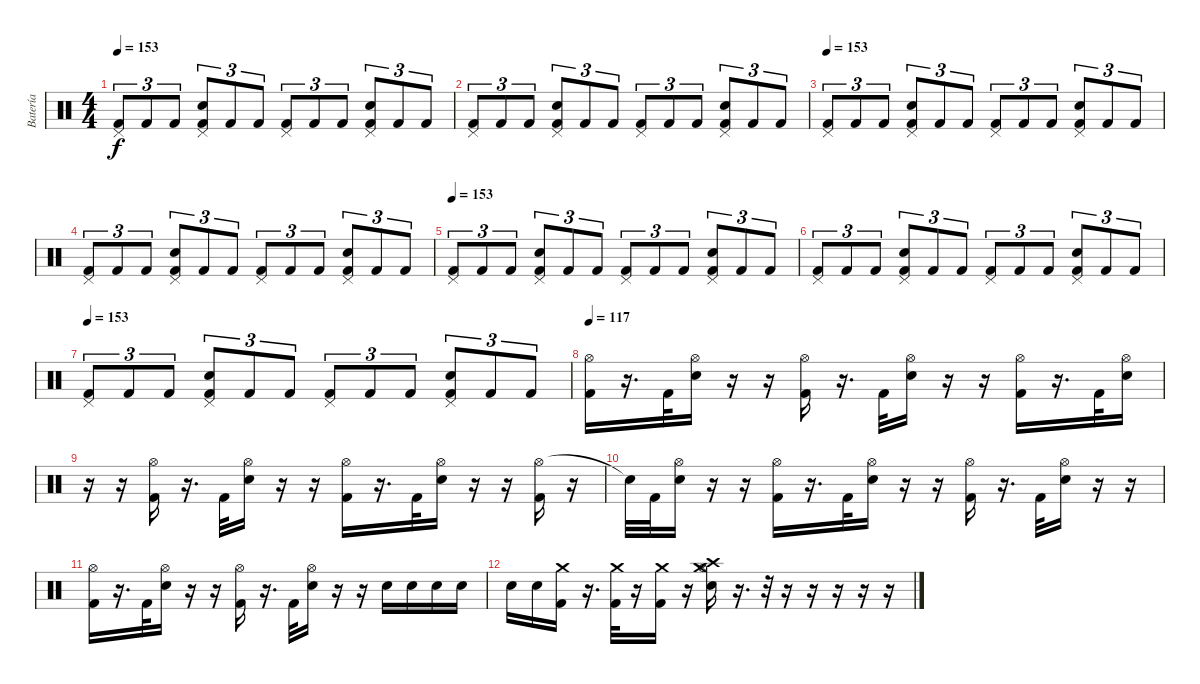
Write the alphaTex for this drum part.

\track ("Batería" "Batería") {instrument percussion}
\staff {score}
\articulation defaults
\ts (4 4)
\tempo 153
\clef neutral
\ks c
("Pedal Hi-Hat (hit)" "Kick (hit) 2").8{tu (3 2) dy f} "Kick (hit) 2".8{tu (3 2)} "Kick (hit) 2".8{tu (3 2)} ("Pedal Hi-Hat (hit)" "Kick (hit) 2" "Snare (hit) 2").8{tu (3 2)} "Kick (hit) 2".8{tu (3 2)} "Kick (hit) 2".8{tu (3 2)} ("Pedal Hi-Hat (hit)" "Kick (hit) 2").8{tu (3 2)} "Kick (hit) 2".8{tu (3 2)} "Kick (hit) 2".8{tu (3 2)} ("Pedal Hi-Hat (hit)" "Kick (hit) 2" "Snare (hit) 2").8{tu (3 2)} "Kick (hit) 2".8{tu (3 2)} "Kick (hit) 2".8{tu (3 2)} |
("Pedal Hi-Hat (hit)" "Kick (hit) 2").8{tu (3 2)} "Kick (hit) 2".8{tu (3 2)} "Kick (hit) 2".8{tu (3 2)} ("Pedal Hi-Hat (hit)" "Kick (hit) 2" "Snare (hit) 2").8{tu (3 2)} "Kick (hit) 2".8{tu (3 2)} "Kick (hit) 2".8{tu (3 2)} ("Pedal Hi-Hat (hit)" "Kick (hit) 2").8{tu (3 2)} "Kick (hit) 2".8{tu (3 2)} "Kick (hit) 2".8{tu (3 2)} ("Pedal Hi-Hat (hit)" "Kick (hit) 2" "Snare (hit) 2").8{tu (3 2)} "Kick (hit) 2".8{tu (3 2)} "Kick (hit) 2".8{tu (3 2)} |
\tempo 153
("Pedal Hi-Hat (hit)" "Kick (hit) 2").8{tu (3 2)} "Kick (hit) 2".8{tu (3 2)} "Kick (hit) 2".8{tu (3 2)} ("Pedal Hi-Hat (hit)" "Kick (hit) 2" "Snare (hit) 2").8{tu (3 2)} "Kick (hit) 2".8{tu (3 2)} "Kick (hit) 2".8{tu (3 2)} ("Pedal Hi-Hat (hit)" "Kick (hit) 2").8{tu (3 2)} "Kick (hit) 2".8{tu (3 2)} "Kick (hit) 2".8{tu (3 2)} ("Pedal Hi-Hat (hit)" "Kick (hit) 2" "Snare (hit) 2").8{tu (3 2)} "Kick (hit) 2".8{tu (3 2)} "Kick (hit) 2".8{tu (3 2)} |
("Pedal Hi-Hat (hit)" "Kick (hit) 2").8{tu (3 2)} "Kick (hit) 2".8{tu (3 2)} "Kick (hit) 2".8{tu (3 2)} ("Pedal Hi-Hat (hit)" "Kick (hit) 2" "Snare (hit) 2").8{tu (3 2)} "Kick (hit) 2".8{tu (3 2)} "Kick (hit) 2".8{tu (3 2)} ("Pedal Hi-Hat (hit)" "Kick (hit) 2").8{tu (3 2)} "Kick (hit) 2".8{tu (3 2)} "Kick (hit) 2".8{tu (3 2)} ("Pedal Hi-Hat (hit)" "Kick (hit) 2" "Snare (hit) 2").8{tu (3 2)} "Kick (hit) 2".8{tu (3 2)} "Kick (hit) 2".8{tu (3 2)} |
\tempo 153
("Pedal Hi-Hat (hit)" "Kick (hit) 2").8{tu (3 2)} "Kick (hit) 2".8{tu (3 2)} "Kick (hit) 2".8{tu (3 2)} ("Pedal Hi-Hat (hit)" "Kick (hit) 2" "Snare (hit) 2").8{tu (3 2)} "Kick (hit) 2".8{tu (3 2)} "Kick (hit) 2".8{tu (3 2)} ("Pedal Hi-Hat (hit)" "Kick (hit) 2").8{tu (3 2)} "Kick (hit) 2".8{tu (3 2)} "Kick (hit) 2".8{tu (3 2)} ("Pedal Hi-Hat (hit)" "Kick (hit) 2" "Snare (hit) 2").8{tu (3 2)} "Kick (hit) 2".8{tu (3 2)} "Kick (hit) 2".8{tu (3 2)} |
("Pedal Hi-Hat (hit)" "Kick (hit) 2").8{tu (3 2)} "Kick (hit) 2".8{tu (3 2)} "Kick (hit) 2".8{tu (3 2)} ("Pedal Hi-Hat (hit)" "Kick (hit) 2" "Snare (hit) 2").8{tu (3 2)} "Kick (hit) 2".8{tu (3 2)} "Kick (hit) 2".8{tu (3 2)} ("Pedal Hi-Hat (hit)" "Kick (hit) 2").8{tu (3 2)} "Kick (hit) 2".8{tu (3 2)} "Kick (hit) 2".8{tu (3 2)} ("Pedal Hi-Hat (hit)" "Kick (hit) 2" "Snare (hit) 2").8{tu (3 2)} "Kick (hit) 2".8{tu (3 2)} "Kick (hit) 2".8{tu (3 2)} |
\tempo 153
("Pedal Hi-Hat (hit)" "Kick (hit) 2").8{tu (3 2)} "Kick (hit) 2".8{tu (3 2)} "Kick (hit) 2".8{tu (3 2)} ("Pedal Hi-Hat (hit)" "Kick (hit) 2" "Snare (hit) 2").8{tu (3 2)} "Kick (hit) 2".8{tu (3 2)} "Kick (hit) 2".8{tu (3 2)} ("Pedal Hi-Hat (hit)" "Kick (hit) 2").8{tu (3 2)} "Kick (hit) 2".8{tu (3 2)} "Kick (hit) 2".8{tu (3 2)} ("Pedal Hi-Hat (hit)" "Kick (hit) 2" "Snare (hit) 2").8{tu (3 2)} "Kick (hit) 2".8{tu (3 2)} "Kick (hit) 2".8{tu (3 2)} |
\tempo 117
("Hi-Hat (open)" "Kick (hit) 2").16 r.16{d} "Kick (hit) 2".32 ("Hi-Hat (open)" "Snare (hit) 2").16 r.16 r.16 ("Hi-Hat (open)" "Kick (hit) 2").16 r.16{d} "Kick (hit) 2".32 ("Hi-Hat (open)" "Snare (hit) 2").16 r.16 r.16 ("Hi-Hat (open)" "Kick (hit) 2").16 r.16{d} "Kick (hit) 2".32 ("Hi-Hat (open)" "Snare (hit) 2").16 |
r.16 r.16 ("Hi-Hat (open)" "Kick (hit) 2").16 r.16{d} "Kick (hit) 2".32 ("Hi-Hat (open)" "Snare (hit) 2").16 r.16 r.16 ("Hi-Hat (open)" "Kick (hit) 2").16 r.16{d} "Kick (hit) 2".32 ("Hi-Hat (open)" "Snare (hit) 2").16 r.16 r.16 ("Hi-Hat (open)" "Kick (hit) 2").16 r.16 |
"Snare (hit)"{t}.32 "Kick (hit) 2".32 ("Hi-Hat (open)" "Snare (hit) 2").16 r.16 r.16 ("Hi-Hat (open)" "Kick (hit) 2").16 r.16{d} "Kick (hit) 2".32 ("Hi-Hat (open)" "Snare (hit) 2").16 r.16 r.16 ("Hi-Hat (open)" "Kick (hit) 2").16 r.16{d} "Kick (hit) 2".32 ("Hi-Hat (open)" "Snare (hit) 2").16 r.16 r.16 |
("Hi-Hat (open)" "Kick (hit) 2").16 r.16{d} "Kick (hit) 2".32 ("Hi-Hat (open)" "Snare (hit) 2").16 r.16 r.16 ("Hi-Hat (open)" "Kick (hit) 2").16 r.16{d} "Kick (hit) 2".32 ("Hi-Hat (open)" "Snare (hit) 2").16 r.16 r.16 "Snare (hit) 2".16 "Snare (hit) 2".16 "Snare (hit) 2".16 "Snare (hit) 2".16 |
"Snare (hit) 2".16 "Snare (hit) 2".16 ("Crash medium (hit)" "Kick (hit) 2").16 r.16{d} ("Crash medium (hit)" "Kick (hit) 2").32 r.16 ("Crash medium (hit)" "Kick (hit) 2").16 r.16 ("Crash medium (hit)" "Crash high (hit)" "Hi-Hat (open)" "Snare (hit) 2").16 r.16{d} r.32 r.16 r.16 r.16 r.16 r.16
